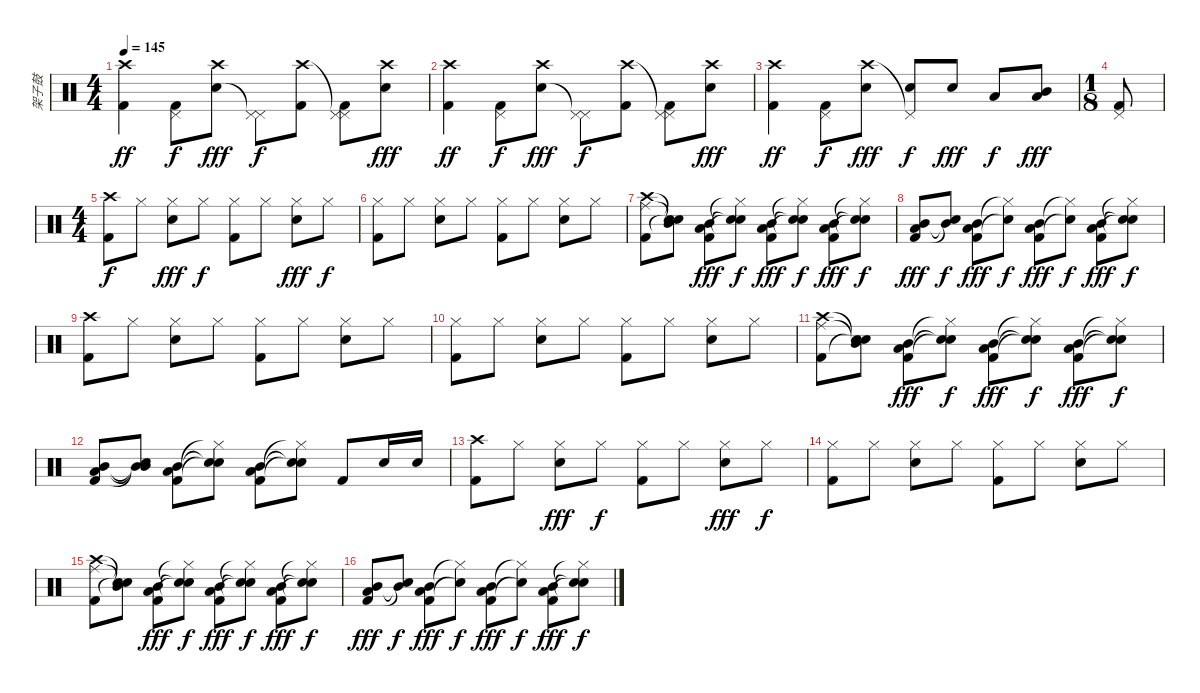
\track ("架子鼓" "架子鼓") {instrument percussion}
\staff {score}
\articulation defaults
\ts (4 4)
\tempo 145
\clef neutral
\ks c
("Kick (hit) 2" "Crash high (hit)").4{dy ff} ("Kick (hit) 2" "Pedal Hi-Hat (hit)").8{dy f} ("Snare (hit) 2" "Crash high (hit)").8{dy fff} ("Pedal Hi-Hat (hit)"{t} "Pedal Hi-Hat (hit)").8{dy f} ("Kick (hit) 2" "Crash high (hit)").8 ("Kick (hit) 2" "Pedal Hi-Hat (hit)"{t} "Pedal Hi-Hat (hit)").8 ("Snare (hit) 2" "Crash high (hit)").8{dy fff} |
("Kick (hit) 2" "Crash high (hit)").4{dy ff} ("Kick (hit) 2" "Pedal Hi-Hat (hit)").8{dy f} ("Snare (hit) 2" "Crash high (hit)").8{dy fff} ("Pedal Hi-Hat (hit)"{t} "Pedal Hi-Hat (hit)").8{dy f} ("Kick (hit) 2" "Crash high (hit)").8 ("Kick (hit) 2" "Pedal Hi-Hat (hit)"{t} "Pedal Hi-Hat (hit)").8 ("Snare (hit) 2" "Crash high (hit)").8{dy fff} |
("Kick (hit) 2" "Crash high (hit)").4{dy ff} ("Kick (hit) 2" "Pedal Hi-Hat (hit)").8{dy f} ("Snare (hit) 2" "Crash high (hit)").8{dy fff} ("Snare (hit) 2" "Pedal Hi-Hat (hit)"{t}).8{dy f} "Snare (hit) 2".8{dy fff} "Low Tom (hit)".8{dy f} ("Low Tom (hit)" "Mid Tom (hit)").8{dy fff} |
\ts (1 8)
("Kick (hit) 2" "Pedal Hi-Hat (hit)").8 |
\ts (4 4)
("Kick (hit) 2" "Crash high (hit)").8{dy f} "Hi-Hat (closed)".8 ("Snare (hit) 2" "Hi-Hat (closed)").8{dy fff} "Hi-Hat (closed)".8{dy f} ("Kick (hit) 2" "Hi-Hat (closed)").8 "Hi-Hat (closed)".8 ("Snare (hit) 2" "Hi-Hat (closed)").8{dy fff} "Hi-Hat (closed)".8{dy f} |
("Kick (hit) 2" "Hi-Hat (closed)").8 "Hi-Hat (closed)".8 ("Snare (hit) 2" "Hi-Hat (closed)").8 "Hi-Hat (closed)".8 ("Kick (hit) 2" "Hi-Hat (closed)").8 "Hi-Hat (closed)".8 ("Snare (hit) 2" "Hi-Hat (closed)").8 "Hi-Hat (closed)".8 |
("Kick (hit) 2" "Ride (middle)" "Crash high (hit)").8 ("Snare (hit)"{t} "Mid Tom (hit)"{t} "Snare (hit)"{t}).8 ("Kick (hit) 2" "Mid Tom (hit)" "Low Tom (hit)").8{dy fff} ("Snare (hit)"{t} "Hi-Hat (closed)"{t} "Snare (hit)"{t}).8{dy f} ("Kick (hit) 2" "Mid Tom (hit)" "Low Tom (hit)").8{dy fff} ("Snare (hit)"{t} "Hi-Hat (closed)"{t} "Snare (hit)"{t}).8{dy f} ("Kick (hit) 2" "Mid Tom (hit)" "Low Tom (hit)").8{dy fff} ("Snare (hit)"{t} "Hi-Hat (closed)"{t} "Snare (hit)"{t}).8{dy f} |
("Kick (hit) 2" "Mid Tom (hit)" "Low Tom (hit)").8{dy fff} ("Snare (hit)"{t} "Mid Tom (hit)"{t}).8{dy f} ("Kick (hit) 2" "Mid Tom (hit)" "Low Tom (hit)").8{dy fff} ("Snare (hit)"{t} "Hi-Hat (closed)"{t}).8{dy f} ("Kick (hit) 2" "Mid Tom (hit)" "Low Tom (hit)").8{dy fff} ("Snare (hit)"{t} "Hi-Hat (closed)"{t}).8{dy f} ("Kick (hit) 2" "Mid Tom (hit)" "Low Tom (hit)").8{dy fff} ("Snare (hit)"{t} "Hi-Hat (closed)"{t} "Snare (hit)"{t}).8{dy f} |
("Kick (hit) 2" "Crash high (hit)").8 "Hi-Hat (closed)".8 ("Snare (hit) 2" "Hi-Hat (closed)").8 "Hi-Hat (closed)".8 ("Kick (hit) 2" "Hi-Hat (closed)").8 "Hi-Hat (closed)".8 ("Snare (hit) 2" "Hi-Hat (closed)").8 "Hi-Hat (closed)".8 |
("Kick (hit) 2" "Hi-Hat (closed)").8 "Hi-Hat (closed)".8 ("Snare (hit) 2" "Hi-Hat (closed)").8 "Hi-Hat (closed)".8 ("Kick (hit) 2" "Hi-Hat (closed)").8 "Hi-Hat (closed)".8 ("Snare (hit) 2" "Hi-Hat (closed)").8 "Hi-Hat (closed)".8 |
("Kick (hit) 2" "Ride (middle)" "Crash high (hit)").8 ("Snare (hit)"{t} "Mid Tom (hit)"{t} "Snare (hit)"{t}).8 ("Kick (hit) 2" "Mid Tom (hit)" "Low Tom (hit)").8{dy fff} ("Snare (hit)"{t} "Hi-Hat (closed)"{t} "Snare (hit)"{t}).8{dy f} ("Kick (hit) 2" "Mid Tom (hit)" "Low Tom (hit)").8{dy fff} ("Snare (hit)"{t} "Hi-Hat (closed)"{t} "Snare (hit)"{t}).8{dy f} ("Kick (hit) 2" "Mid Tom (hit)" "Low Tom (hit)").8{dy fff} ("Snare (hit)"{t} "Hi-Hat (closed)"{t} "Snare (hit)"{t}).8{dy f} |
("Kick (hit) 2" "Low Tom (hit)" "Mid Tom (hit)").8 ("Snare (hit)"{t} "Mid Tom (hit)"{t} "Mid Tom (hit)"{t}).8 ("Kick (hit) 2" "Low Tom (hit)" "Mid Tom (hit)").8 ("Snare (hit)"{t} "Hi-Hat (closed)"{t} "Snare (hit)"{t}).8 ("Kick (hit) 2" "Low Tom (hit)" "Mid Tom (hit)").8 ("Snare (hit)"{t} "Hi-Hat (closed)"{t} "Snare (hit)"{t}).8 "Kick (hit) 2".8 "Snare (hit) 2".16 "Snare (hit) 2".16 |
("Kick (hit) 2" "Crash high (hit)").8 "Hi-Hat (closed)".8 ("Snare (hit) 2" "Hi-Hat (closed)").8{dy fff} "Hi-Hat (closed)".8{dy f} ("Kick (hit) 2" "Hi-Hat (closed)").8 "Hi-Hat (closed)".8 ("Snare (hit) 2" "Hi-Hat (closed)").8{dy fff} "Hi-Hat (closed)".8{dy f} |
("Kick (hit) 2" "Hi-Hat (closed)").8 "Hi-Hat (closed)".8 ("Snare (hit) 2" "Hi-Hat (closed)").8 "Hi-Hat (closed)".8 ("Kick (hit) 2" "Hi-Hat (closed)").8 "Hi-Hat (closed)".8 ("Snare (hit) 2" "Hi-Hat (closed)").8 "Hi-Hat (closed)".8 |
("Kick (hit) 2" "Ride (middle)" "Crash high (hit)").8 ("Snare (hit)"{t} "Mid Tom (hit)"{t} "Snare (hit)"{t}).8 ("Kick (hit) 2" "Mid Tom (hit)" "Low Tom (hit)").8{dy fff} ("Snare (hit)"{t} "Hi-Hat (closed)"{t} "Snare (hit)"{t}).8{dy f} ("Kick (hit) 2" "Mid Tom (hit)" "Low Tom (hit)").8{dy fff} ("Snare (hit)"{t} "Hi-Hat (closed)"{t} "Snare (hit)"{t}).8{dy f} ("Kick (hit) 2" "Mid Tom (hit)" "Low Tom (hit)").8{dy fff} ("Snare (hit)"{t} "Hi-Hat (closed)"{t} "Snare (hit)"{t}).8{dy f} |
("Kick (hit) 2" "Mid Tom (hit)" "Low Tom (hit)").8{dy fff} ("Snare (hit)"{t} "Mid Tom (hit)"{t}).8{dy f} ("Kick (hit) 2" "Mid Tom (hit)" "Low Tom (hit)").8{dy fff} ("Snare (hit)"{t} "Hi-Hat (closed)"{t}).8{dy f} ("Kick (hit) 2" "Mid Tom (hit)" "Low Tom (hit)").8{dy fff} ("Snare (hit)"{t} "Hi-Hat (closed)"{t}).8{dy f} ("Kick (hit) 2" "Mid Tom (hit)" "Low Tom (hit)").8{dy fff} ("Snare (hit)"{t} "Hi-Hat (closed)"{t} "Snare (hit)"{t}).8{dy f}
